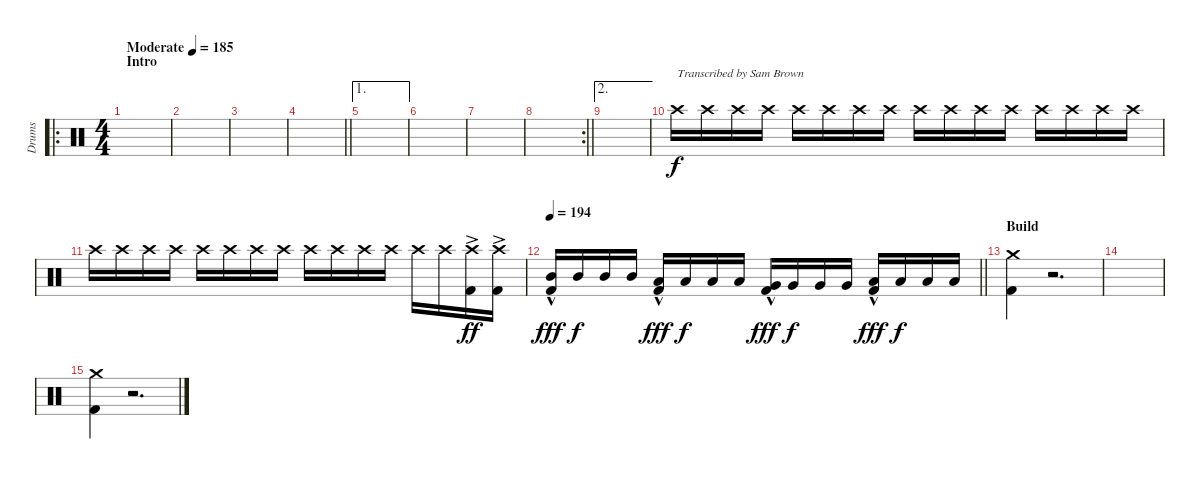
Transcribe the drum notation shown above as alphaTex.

\track ("Drums" "Drums") {instrument percussion}
\staff {score}
\articulation defaults
\ro
\ts (4 4)
\section ("" "Intro")
\tempo (185 "Moderate")
\clef neutral
\ks c
|
|
|
\barLineRight lightlight
|
\ae 1
\section ("" "")
|
|
|
\rc 2
\barLineRight lightlight
|
\ae 2
\section ("" "")
|
"Crash high (hit)".16{txt "Transcribed by Sam Brown" volume 16} "Crash high (hit)".16 "Crash high (hit)".16 "Crash high (hit)".16 "Crash high (hit)".16 "Crash high (hit)".16 "Crash high (hit)".16 "Crash high (hit)".16 "Crash high (hit)".16 "Crash high (hit)".16 "Crash high (hit)".16 "Crash high (hit)".16 "Crash high (hit)".16 "Crash high (hit)".16 "Crash high (hit)".16 "Crash high (hit)".16 |
"Crash high (hit)".16 "Crash high (hit)".16 "Crash high (hit)".16 "Crash high (hit)".16 "Crash high (hit)".16 "Crash high (hit)".16 "Crash high (hit)".16{volume 16} "Crash high (hit)".16 "Crash high (hit)".16 "Crash high (hit)".16 "Crash high (hit)".16 "Crash high (hit)".16 "Crash high (hit)".16 "Crash high (hit)".16 ("Kick (hit) 2"{ac} "Crash high (hit)").16{dy ff} ("Kick (hit) 2"{ac} "Crash high (hit)").16 |
\tempo 194
\barLineRight lightlight
("Kick (hit) 2"{hac} "Mid Tom (hit)"{hac}).16{dy fff} "Mid Tom (hit)".16{dy f} "Mid Tom (hit)".16 "Mid Tom (hit)".16 ("Kick (hit) 2"{hac} "Low Tom (hit)"{hac}).16{dy fff} "Low Tom (hit)".16{dy f} "Low Tom (hit)".16 "Low Tom (hit)".16 ("Kick (hit) 2"{hac} "Very Low Tom (hit)"{hac}).16{dy fff} "Very Low Tom (hit)".16{dy f} "Very Low Tom (hit)".16 "Very Low Tom (hit)".16 ("Kick (hit) 2"{hac} "Low Floor Tom (hit)"{hac}).16{dy fff} "Low Floor Tom (hit)".16{dy f} "Low Floor Tom (hit)".16 "Low Floor Tom (hit)".16 |
\section ("" "Build")
("Kick (hit) 2" "Crash medium (hit)").4 r.2{d} |
|
("Kick (hit) 2" "Crash medium (hit)").4 r.2{d}
